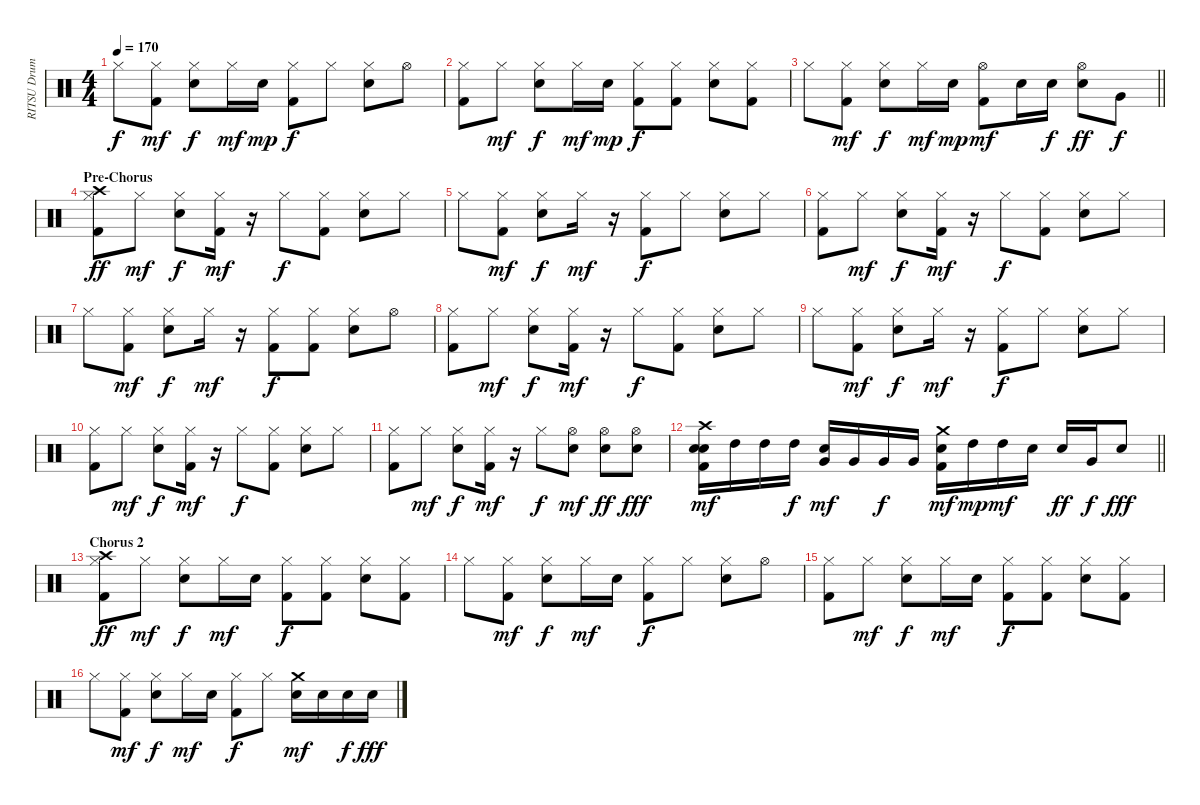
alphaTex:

\track ("RITSU Drums" "RITSU Drum") {instrument percussion}
\staff {score}
\articulation defaults
\ts (4 4)
\tempo 170
\clef neutral
\ks c "Hi-Hat (closed)".8{dy f}
("Hi-Hat (closed)" "Kick (hit) 2").8{dy mf} ("Hi-Hat (closed)" "Electric Snare (hit)").8{dy f} "Hi-Hat (closed)".16{dy mf} "Electric Snare (hit)".16{dy mp} ("Hi-Hat (closed)" "Kick (hit) 2").8{dy f} "Hi-Hat (closed)".8 ("Hi-Hat (closed)" "Electric Snare (hit)").8 "Hi-Hat (open)".8 |
("Hi-Hat (closed)" "Kick (hit) 2").8 "Hi-Hat (closed)".8{dy mf} ("Hi-Hat (closed)" "Electric Snare (hit)").8{dy f} "Hi-Hat (closed)".16{dy mf} "Electric Snare (hit)".16{dy mp} ("Hi-Hat (closed)" "Kick (hit) 2").8{dy f} ("Hi-Hat (closed)" "Kick (hit) 2").8 ("Hi-Hat (closed)" "Electric Snare (hit)").8 ("Hi-Hat (closed)" "Kick (hit) 2").8 |
\barLineRight lightlight "Hi-Hat (closed)".8
("Hi-Hat (closed)" "Kick (hit) 2").8{dy mf} ("Hi-Hat (closed)" "Electric Snare (hit)").8{dy f} "Hi-Hat (closed)".16{dy mf} "Electric Snare (hit)".16{dy mp} ("Hi-Hat (open)" "Kick (hit) 2").8{dy mf} "Electric Snare (hit)".16 "Electric Snare (hit)".16{dy f} ("Hi-Hat (open)" "Electric Snare (hit)").8{dy ff} "Very Low Tom (hit)".8{dy f} |
\section ("" "Pre-Chorus")
("Crash high (hit)" "Hi-Hat (closed)" "Kick (hit) 2").8{dy ff} "Hi-Hat (closed)".8{dy mf} ("Hi-Hat (closed)" "Electric Snare (hit)").8{dy f} ("Hi-Hat (closed)" "Kick (hit) 2").16{dy mf} r.16 "Hi-Hat (closed)".8{dy f} ("Hi-Hat (closed)" "Kick (hit) 2").8 ("Hi-Hat (closed)" "Electric Snare (hit)").8 "Hi-Hat (closed)".8 |
"Hi-Hat (closed)".8 ("Hi-Hat (closed)" "Kick (hit) 2").8{dy mf} ("Hi-Hat (closed)" "Electric Snare (hit)").8{dy f} "Hi-Hat (closed)".16{dy mf} r.16 ("Hi-Hat (closed)" "Kick (hit) 2").8{dy f} "Hi-Hat (closed)".8 ("Hi-Hat (closed)" "Electric Snare (hit)").8 "Hi-Hat (closed)".8 |
("Hi-Hat (closed)" "Kick (hit) 2").8 "Hi-Hat (closed)".8{dy mf} ("Hi-Hat (closed)" "Electric Snare (hit)").8{dy f} ("Hi-Hat (closed)" "Kick (hit) 2").16{dy mf} r.16 "Hi-Hat (closed)".8{dy f} ("Hi-Hat (closed)" "Kick (hit) 2").8 ("Hi-Hat (closed)" "Electric Snare (hit)").8 "Hi-Hat (closed)".8 |
"Hi-Hat (closed)".8 ("Hi-Hat (closed)" "Kick (hit) 2").8{dy mf} ("Hi-Hat (closed)" "Electric Snare (hit)").8{dy f} "Hi-Hat (closed)".16{dy mf} r.16 ("Hi-Hat (closed)" "Kick (hit) 2").8{dy f} ("Hi-Hat (closed)" "Kick (hit) 2").8 ("Hi-Hat (closed)" "Electric Snare (hit)").8 "Hi-Hat (open)".8 |
("Hi-Hat (closed)" "Kick (hit) 2").8 "Hi-Hat (closed)".8{dy mf} ("Hi-Hat (closed)" "Electric Snare (hit)").8{dy f} ("Hi-Hat (closed)" "Kick (hit) 2").16{dy mf} r.16 "Hi-Hat (closed)".8{dy f} ("Hi-Hat (closed)" "Kick (hit) 2").8 ("Hi-Hat (closed)" "Electric Snare (hit)").8 "Hi-Hat (closed)".8 |
"Hi-Hat (closed)".8 ("Hi-Hat (closed)" "Kick (hit) 2").8{dy mf} ("Hi-Hat (closed)" "Electric Snare (hit)").8{dy f} "Hi-Hat (closed)".16{dy mf} r.16 ("Hi-Hat (closed)" "Kick (hit) 2").8{dy f} "Hi-Hat (closed)".8 ("Hi-Hat (closed)" "Electric Snare (hit)").8 "Hi-Hat (closed)".8 |
("Hi-Hat (closed)" "Kick (hit) 2").8 "Hi-Hat (closed)".8{dy mf} ("Hi-Hat (closed)" "Electric Snare (hit)").8{dy f} ("Hi-Hat (closed)" "Kick (hit) 2").16{dy mf} r.16 "Hi-Hat (closed)".8{dy f} ("Hi-Hat (closed)" "Kick (hit) 2").8 ("Hi-Hat (closed)" "Electric Snare (hit)").8 "Hi-Hat (closed)".8 |
("Hi-Hat (closed)" "Kick (hit) 2").8 "Hi-Hat (closed)".8{dy mf} ("Hi-Hat (closed)" "Electric Snare (hit)").8{dy f} ("Hi-Hat (closed)" "Kick (hit) 2").16{dy mf} r.16 "Hi-Hat (closed)".8{dy f} ("Hi-Hat (open)" "Electric Snare (hit)").8{dy mf} ("Hi-Hat (open)" "Electric Snare (hit)").8{dy ff} ("Hi-Hat (open)" "Electric Snare (hit)").8{dy fff} |
\barLineRight lightlight
("Crash high (hit)" "Electric Snare (hit)" "Electric Snare (hit)" "Kick (hit) 2").16{dy mf} "High Tom (hit)".16 "High Tom (hit)".16 "High Tom (hit)".16{dy f} ("Electric Snare (hit)" "Very Low Tom (hit)").16{dy mf} "Very Low Tom (hit)".16 "Very Low Tom (hit)".16{dy f} "Very Low Tom (hit)".16 ("Crash medium (hit)" "Electric Snare (hit)" "Kick (hit) 2").16{dy mf} "High Tom (hit)".16{dy mp} "High Tom (hit)".16{dy mf} "Electric Snare (hit)".16 "Electric Snare (hit)".16{dy ff} "Very Low Tom (hit)".16{dy f} "Electric Snare (hit)".8{dy fff} |
\section ("" "Chorus 2")
("Crash high (hit)" "Hi-Hat (closed)" "Kick (hit) 2").8{dy ff} "Hi-Hat (closed)".8{dy mf} ("Hi-Hat (closed)" "Electric Snare (hit)").8{dy f} "Hi-Hat (closed)".16{dy mf} "Electric Snare (hit)".16 ("Hi-Hat (closed)" "Kick (hit) 2").8{dy f} ("Hi-Hat (closed)" "Kick (hit) 2").8 ("Hi-Hat (closed)" "Electric Snare (hit)").8 ("Hi-Hat (closed)" "Kick (hit) 2").8 |
"Hi-Hat (closed)".8 ("Hi-Hat (closed)" "Kick (hit) 2").8{dy mf} ("Hi-Hat (closed)" "Electric Snare (hit)").8{dy f} "Hi-Hat (closed)".16{dy mf} "Electric Snare (hit)".16 ("Hi-Hat (closed)" "Kick (hit) 2").8{dy f} "Hi-Hat (closed)".8 ("Hi-Hat (closed)" "Electric Snare (hit)").8 "Hi-Hat (open)".8 |
("Hi-Hat (closed)" "Kick (hit) 2").8 "Hi-Hat (closed)".8{dy mf} ("Hi-Hat (closed)" "Electric Snare (hit)").8{dy f} "Hi-Hat (closed)".16{dy mf} "Electric Snare (hit)".16 ("Hi-Hat (closed)" "Kick (hit) 2").8{dy f} ("Hi-Hat (closed)" "Kick (hit) 2").8 ("Hi-Hat (closed)" "Electric Snare (hit)").8 ("Hi-Hat (closed)" "Kick (hit) 2").8 |
"Hi-Hat (closed)".8 ("Hi-Hat (closed)" "Kick (hit) 2").8{dy mf} ("Hi-Hat (closed)" "Electric Snare (hit)").8{dy f} "Hi-Hat (closed)".16{dy mf} "Electric Snare (hit)".16 ("Hi-Hat (closed)" "Kick (hit) 2").8{dy f} "Hi-Hat (closed)".8 ("Crash medium (hit)" "Electric Snare (hit)").16{dy mf} "Electric Snare (hit)".16 "Electric Snare (hit)".16{dy f} "Electric Snare (hit)".16{dy fff}
